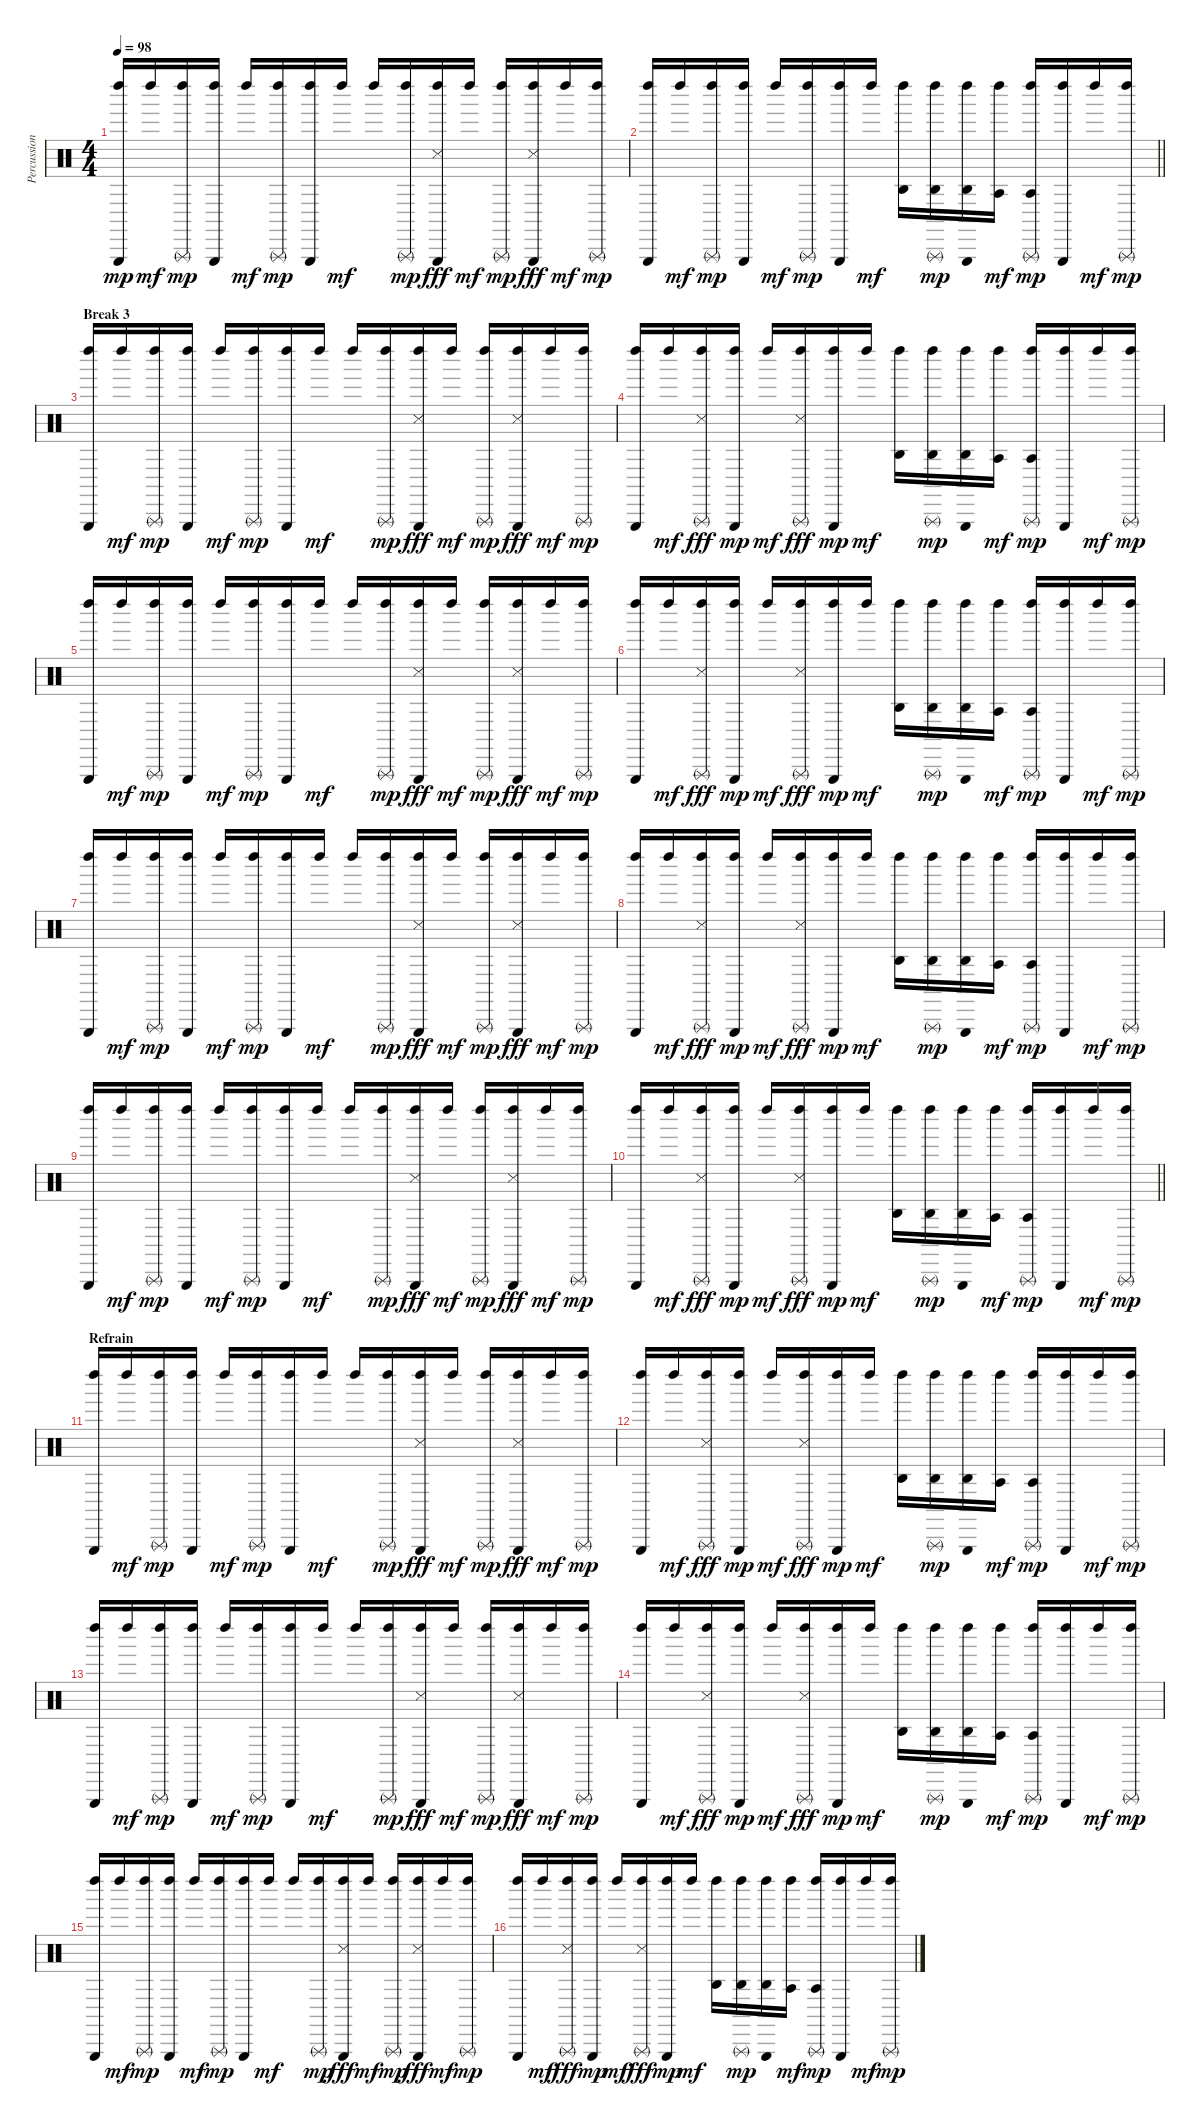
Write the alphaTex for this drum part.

\track ("Percussions (Dr-0)" "Percussion") {instrument percussion}
\staff {score}
\articulation defaults
\ts (4 4)
\tempo 98
\clef neutral
\ks c
("Left Maraca (hit)" "Triangle (hit)").16{dy mp} "Left Maraca (hit)".16{dy mf} ("Left Maraca (hit)" "Triangle (rnute)").16{dy mp} ("Left Maraca (hit)" "Triangle (hit)").16 "Left Maraca (hit)".16{dy mf} ("Left Maraca (hit)" "Triangle (rnute)").16{dy mp} ("Left Maraca (hit)" "Triangle (hit)").16 "Left Maraca (hit)".16{dy mf} "Left Maraca (hit)".16 ("Left Maraca (hit)" "Triangle (rnute)").16{dy mp} ("Left Maraca (hit)" "Triangle (hit)" "Snare (side stick) 3").16{dy fff} "Left Maraca (hit)".16{dy mf} ("Left Maraca (hit)" "Triangle (rnute)").16{dy mp} ("Left Maraca (hit)" "Triangle (hit)" "Snare (side stick) 3").16{dy fff} "Left Maraca (hit)".16{dy mf} ("Left Maraca (hit)" "Triangle (rnute)").16{dy mp} |
\barLineRight lightlight
("Left Maraca (hit)" "Triangle (hit)").16 "Left Maraca (hit)".16{dy mf} ("Left Maraca (hit)" "Triangle (rnute)").16{dy mp} ("Left Maraca (hit)" "Triangle (hit)").16 "Left Maraca (hit)".16{dy mf} ("Left Maraca (hit)" "Triangle (rnute)").16{dy mp} ("Left Maraca (hit)" "Triangle (hit)").16 "Left Maraca (hit)".16{dy mf} ("Left Maraca (hit)" "Agogo high (hit)").16 ("Left Maraca (hit)" "Triangle (rnute)" "Agogo high (hit)").16{dy mp} ("Left Maraca (hit)" "Triangle (hit)" "Agogo high (hit)").16 ("Left Maraca (hit)" "Agogo tow (hit)").16{dy mf} ("Left Maraca (hit)" "Triangle (rnute)" "Agogo tow (hit)").16{dy mp} ("Left Maraca (hit)" "Triangle (hit)").16 "Left Maraca (hit)".16{dy mf} ("Left Maraca (hit)" "Triangle (rnute)").16{dy mp} |
\section ("" "Break 3")
("Left Maraca (hit)" "Triangle (hit)").16 "Left Maraca (hit)".16{dy mf} ("Left Maraca (hit)" "Triangle (rnute)").16{dy mp} ("Left Maraca (hit)" "Triangle (hit)").16 "Left Maraca (hit)".16{dy mf} ("Left Maraca (hit)" "Triangle (rnute)").16{dy mp} ("Left Maraca (hit)" "Triangle (hit)").16 "Left Maraca (hit)".16{dy mf} "Left Maraca (hit)".16 ("Left Maraca (hit)" "Triangle (rnute)").16{dy mp} ("Left Maraca (hit)" "Triangle (hit)" "Snare (side stick) 3").16{dy fff} "Left Maraca (hit)".16{dy mf} ("Left Maraca (hit)" "Triangle (rnute)").16{dy mp} ("Left Maraca (hit)" "Triangle (hit)" "Snare (side stick) 3").16{dy fff} "Left Maraca (hit)".16{dy mf} ("Left Maraca (hit)" "Triangle (rnute)").16{dy mp} |
("Left Maraca (hit)" "Triangle (hit)").16 "Left Maraca (hit)".16{dy mf} ("Left Maraca (hit)" "Triangle (rnute)" "Snare (side stick) 3").16{dy fff} ("Left Maraca (hit)" "Triangle (hit)").16{dy mp} "Left Maraca (hit)".16{dy mf} ("Left Maraca (hit)" "Triangle (rnute)" "Snare (side stick) 3").16{dy fff} ("Left Maraca (hit)" "Triangle (hit)").16{dy mp} "Left Maraca (hit)".16{dy mf} ("Left Maraca (hit)" "Agogo high (hit)").16 ("Left Maraca (hit)" "Triangle (rnute)" "Agogo high (hit)").16{dy mp} ("Left Maraca (hit)" "Triangle (hit)" "Agogo high (hit)").16 ("Left Maraca (hit)" "Agogo tow (hit)").16{dy mf} ("Left Maraca (hit)" "Triangle (rnute)" "Agogo tow (hit)").16{dy mp} ("Left Maraca (hit)" "Triangle (hit)").16 "Left Maraca (hit)".16{dy mf} ("Left Maraca (hit)" "Triangle (rnute)").16{dy mp} |
("Left Maraca (hit)" "Triangle (hit)").16 "Left Maraca (hit)".16{dy mf} ("Left Maraca (hit)" "Triangle (rnute)").16{dy mp} ("Left Maraca (hit)" "Triangle (hit)").16 "Left Maraca (hit)".16{dy mf} ("Left Maraca (hit)" "Triangle (rnute)").16{dy mp} ("Left Maraca (hit)" "Triangle (hit)").16 "Left Maraca (hit)".16{dy mf} "Left Maraca (hit)".16 ("Left Maraca (hit)" "Triangle (rnute)").16{dy mp} ("Left Maraca (hit)" "Triangle (hit)" "Snare (side stick) 3").16{dy fff} "Left Maraca (hit)".16{dy mf} ("Left Maraca (hit)" "Triangle (rnute)").16{dy mp} ("Left Maraca (hit)" "Triangle (hit)" "Snare (side stick) 3").16{dy fff} "Left Maraca (hit)".16{dy mf} ("Left Maraca (hit)" "Triangle (rnute)").16{dy mp} |
("Left Maraca (hit)" "Triangle (hit)").16 "Left Maraca (hit)".16{dy mf} ("Left Maraca (hit)" "Triangle (rnute)" "Snare (side stick) 3").16{dy fff} ("Left Maraca (hit)" "Triangle (hit)").16{dy mp} "Left Maraca (hit)".16{dy mf} ("Left Maraca (hit)" "Triangle (rnute)" "Snare (side stick) 3").16{dy fff} ("Left Maraca (hit)" "Triangle (hit)").16{dy mp} "Left Maraca (hit)".16{dy mf} ("Left Maraca (hit)" "Agogo high (hit)").16 ("Left Maraca (hit)" "Triangle (rnute)" "Agogo high (hit)").16{dy mp} ("Left Maraca (hit)" "Triangle (hit)" "Agogo high (hit)").16 ("Left Maraca (hit)" "Agogo tow (hit)").16{dy mf} ("Left Maraca (hit)" "Triangle (rnute)" "Agogo tow (hit)").16{dy mp} ("Left Maraca (hit)" "Triangle (hit)").16 "Left Maraca (hit)".16{dy mf} ("Left Maraca (hit)" "Triangle (rnute)").16{dy mp} |
("Left Maraca (hit)" "Triangle (hit)").16 "Left Maraca (hit)".16{dy mf} ("Left Maraca (hit)" "Triangle (rnute)").16{dy mp} ("Left Maraca (hit)" "Triangle (hit)").16 "Left Maraca (hit)".16{dy mf} ("Left Maraca (hit)" "Triangle (rnute)").16{dy mp} ("Left Maraca (hit)" "Triangle (hit)").16 "Left Maraca (hit)".16{dy mf} "Left Maraca (hit)".16 ("Left Maraca (hit)" "Triangle (rnute)").16{dy mp} ("Left Maraca (hit)" "Triangle (hit)" "Snare (side stick) 3").16{dy fff} "Left Maraca (hit)".16{dy mf} ("Left Maraca (hit)" "Triangle (rnute)").16{dy mp} ("Left Maraca (hit)" "Triangle (hit)" "Snare (side stick) 3").16{dy fff} "Left Maraca (hit)".16{dy mf} ("Left Maraca (hit)" "Triangle (rnute)").16{dy mp} |
("Left Maraca (hit)" "Triangle (hit)").16 "Left Maraca (hit)".16{dy mf} ("Left Maraca (hit)" "Triangle (rnute)" "Snare (side stick) 3").16{dy fff} ("Left Maraca (hit)" "Triangle (hit)").16{dy mp} "Left Maraca (hit)".16{dy mf} ("Left Maraca (hit)" "Triangle (rnute)" "Snare (side stick) 3").16{dy fff} ("Left Maraca (hit)" "Triangle (hit)").16{dy mp} "Left Maraca (hit)".16{dy mf} ("Left Maraca (hit)" "Agogo high (hit)").16 ("Left Maraca (hit)" "Triangle (rnute)" "Agogo high (hit)").16{dy mp} ("Left Maraca (hit)" "Triangle (hit)" "Agogo high (hit)").16 ("Left Maraca (hit)" "Agogo tow (hit)").16{dy mf} ("Left Maraca (hit)" "Triangle (rnute)" "Agogo tow (hit)").16{dy mp} ("Left Maraca (hit)" "Triangle (hit)").16 "Left Maraca (hit)".16{dy mf} ("Left Maraca (hit)" "Triangle (rnute)").16{dy mp} |
("Left Maraca (hit)" "Triangle (hit)").16 "Left Maraca (hit)".16{dy mf} ("Left Maraca (hit)" "Triangle (rnute)").16{dy mp} ("Left Maraca (hit)" "Triangle (hit)").16 "Left Maraca (hit)".16{dy mf} ("Left Maraca (hit)" "Triangle (rnute)").16{dy mp} ("Left Maraca (hit)" "Triangle (hit)").16 "Left Maraca (hit)".16{dy mf} "Left Maraca (hit)".16 ("Left Maraca (hit)" "Triangle (rnute)").16{dy mp} ("Left Maraca (hit)" "Triangle (hit)" "Snare (side stick) 3").16{dy fff} "Left Maraca (hit)".16{dy mf} ("Left Maraca (hit)" "Triangle (rnute)").16{dy mp} ("Left Maraca (hit)" "Triangle (hit)" "Snare (side stick) 3").16{dy fff} "Left Maraca (hit)".16{dy mf} ("Left Maraca (hit)" "Triangle (rnute)").16{dy mp} |
\barLineRight lightlight
("Left Maraca (hit)" "Triangle (hit)").16 "Left Maraca (hit)".16{dy mf} ("Left Maraca (hit)" "Triangle (rnute)" "Snare (side stick) 3").16{dy fff} ("Left Maraca (hit)" "Triangle (hit)").16{dy mp} "Left Maraca (hit)".16{dy mf} ("Left Maraca (hit)" "Triangle (rnute)" "Snare (side stick) 3").16{dy fff} ("Left Maraca (hit)" "Triangle (hit)").16{dy mp} "Left Maraca (hit)".16{dy mf} ("Left Maraca (hit)" "Agogo high (hit)").16 ("Left Maraca (hit)" "Triangle (rnute)" "Agogo high (hit)").16{dy mp} ("Left Maraca (hit)" "Triangle (hit)" "Agogo high (hit)").16 ("Left Maraca (hit)" "Agogo tow (hit)").16{dy mf} ("Left Maraca (hit)" "Triangle (rnute)" "Agogo tow (hit)").16{dy mp} ("Left Maraca (hit)" "Triangle (hit)").16 "Left Maraca (hit)".16{dy mf} ("Left Maraca (hit)" "Triangle (rnute)").16{dy mp} |
\section ("" "Refrain")
("Left Maraca (hit)" "Triangle (hit)").16 "Left Maraca (hit)".16{dy mf} ("Left Maraca (hit)" "Triangle (rnute)").16{dy mp} ("Left Maraca (hit)" "Triangle (hit)").16 "Left Maraca (hit)".16{dy mf} ("Left Maraca (hit)" "Triangle (rnute)").16{dy mp} ("Left Maraca (hit)" "Triangle (hit)").16 "Left Maraca (hit)".16{dy mf} "Left Maraca (hit)".16 ("Left Maraca (hit)" "Triangle (rnute)").16{dy mp} ("Left Maraca (hit)" "Triangle (hit)" "Snare (side stick) 3").16{dy fff} "Left Maraca (hit)".16{dy mf} ("Left Maraca (hit)" "Triangle (rnute)").16{dy mp} ("Left Maraca (hit)" "Triangle (hit)" "Snare (side stick) 3").16{dy fff} "Left Maraca (hit)".16{dy mf} ("Left Maraca (hit)" "Triangle (rnute)").16{dy mp} |
("Left Maraca (hit)" "Triangle (hit)").16 "Left Maraca (hit)".16{dy mf} ("Left Maraca (hit)" "Triangle (rnute)" "Snare (side stick) 3").16{dy fff} ("Left Maraca (hit)" "Triangle (hit)").16{dy mp} "Left Maraca (hit)".16{dy mf} ("Left Maraca (hit)" "Triangle (rnute)" "Snare (side stick) 3").16{dy fff} ("Left Maraca (hit)" "Triangle (hit)").16{dy mp} "Left Maraca (hit)".16{dy mf} ("Left Maraca (hit)" "Agogo high (hit)").16 ("Left Maraca (hit)" "Triangle (rnute)" "Agogo high (hit)").16{dy mp} ("Left Maraca (hit)" "Triangle (hit)" "Agogo high (hit)").16 ("Left Maraca (hit)" "Agogo tow (hit)").16{dy mf} ("Left Maraca (hit)" "Triangle (rnute)" "Agogo tow (hit)").16{dy mp} ("Left Maraca (hit)" "Triangle (hit)").16 "Left Maraca (hit)".16{dy mf} ("Left Maraca (hit)" "Triangle (rnute)").16{dy mp} |
("Left Maraca (hit)" "Triangle (hit)").16 "Left Maraca (hit)".16{dy mf} ("Left Maraca (hit)" "Triangle (rnute)").16{dy mp} ("Left Maraca (hit)" "Triangle (hit)").16 "Left Maraca (hit)".16{dy mf} ("Left Maraca (hit)" "Triangle (rnute)").16{dy mp} ("Left Maraca (hit)" "Triangle (hit)").16 "Left Maraca (hit)".16{dy mf} "Left Maraca (hit)".16 ("Left Maraca (hit)" "Triangle (rnute)").16{dy mp} ("Left Maraca (hit)" "Triangle (hit)" "Snare (side stick) 3").16{dy fff} "Left Maraca (hit)".16{dy mf} ("Left Maraca (hit)" "Triangle (rnute)").16{dy mp} ("Left Maraca (hit)" "Triangle (hit)" "Snare (side stick) 3").16{dy fff} "Left Maraca (hit)".16{dy mf} ("Left Maraca (hit)" "Triangle (rnute)").16{dy mp} |
("Left Maraca (hit)" "Triangle (hit)").16 "Left Maraca (hit)".16{dy mf} ("Left Maraca (hit)" "Triangle (rnute)" "Snare (side stick) 3").16{dy fff} ("Left Maraca (hit)" "Triangle (hit)").16{dy mp} "Left Maraca (hit)".16{dy mf} ("Left Maraca (hit)" "Triangle (rnute)" "Snare (side stick) 3").16{dy fff} ("Left Maraca (hit)" "Triangle (hit)").16{dy mp} "Left Maraca (hit)".16{dy mf} ("Left Maraca (hit)" "Agogo high (hit)").16 ("Left Maraca (hit)" "Triangle (rnute)" "Agogo high (hit)").16{dy mp} ("Left Maraca (hit)" "Triangle (hit)" "Agogo high (hit)").16 ("Left Maraca (hit)" "Agogo tow (hit)").16{dy mf} ("Left Maraca (hit)" "Triangle (rnute)" "Agogo tow (hit)").16{dy mp} ("Left Maraca (hit)" "Triangle (hit)").16 "Left Maraca (hit)".16{dy mf} ("Left Maraca (hit)" "Triangle (rnute)").16{dy mp} |
("Left Maraca (hit)" "Triangle (hit)").16 "Left Maraca (hit)".16{dy mf} ("Left Maraca (hit)" "Triangle (rnute)").16{dy mp} ("Left Maraca (hit)" "Triangle (hit)").16 "Left Maraca (hit)".16{dy mf} ("Left Maraca (hit)" "Triangle (rnute)").16{dy mp} ("Left Maraca (hit)" "Triangle (hit)").16 "Left Maraca (hit)".16{dy mf} "Left Maraca (hit)".16 ("Left Maraca (hit)" "Triangle (rnute)").16{dy mp} ("Left Maraca (hit)" "Triangle (hit)" "Snare (side stick) 3").16{dy fff} "Left Maraca (hit)".16{dy mf} ("Left Maraca (hit)" "Triangle (rnute)").16{dy mp} ("Left Maraca (hit)" "Triangle (hit)" "Snare (side stick) 3").16{dy fff} "Left Maraca (hit)".16{dy mf} ("Left Maraca (hit)" "Triangle (rnute)").16{dy mp} |
("Left Maraca (hit)" "Triangle (hit)").16 "Left Maraca (hit)".16{dy mf} ("Left Maraca (hit)" "Triangle (rnute)" "Snare (side stick) 3").16{dy fff} ("Left Maraca (hit)" "Triangle (hit)").16{dy mp} "Left Maraca (hit)".16{dy mf} ("Left Maraca (hit)" "Triangle (rnute)" "Snare (side stick) 3").16{dy fff} ("Left Maraca (hit)" "Triangle (hit)").16{dy mp} "Left Maraca (hit)".16{dy mf} ("Left Maraca (hit)" "Agogo high (hit)").16 ("Left Maraca (hit)" "Triangle (rnute)" "Agogo high (hit)").16{dy mp} ("Left Maraca (hit)" "Triangle (hit)" "Agogo high (hit)").16 ("Left Maraca (hit)" "Agogo tow (hit)").16{dy mf} ("Left Maraca (hit)" "Triangle (rnute)" "Agogo tow (hit)").16{dy mp} ("Left Maraca (hit)" "Triangle (hit)").16 "Left Maraca (hit)".16{dy mf} ("Left Maraca (hit)" "Triangle (rnute)").16{dy mp}
